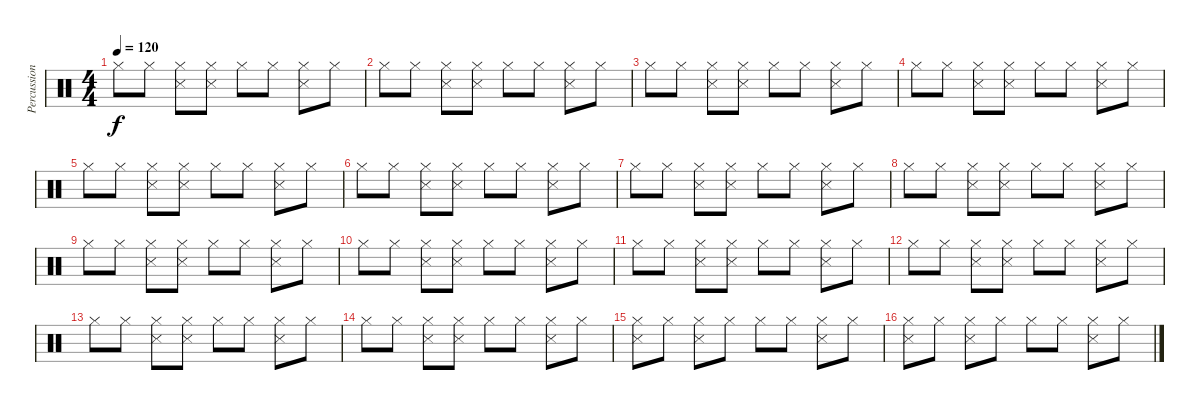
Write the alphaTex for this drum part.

\track ("Percussion" "Percussion") {instrument percussion}
\staff {score}
\articulation defaults
\ts (4 4)
\tempo 120
\clef neutral
\ks c "Hi-Hat (closed)".8{dy f} "Hi-Hat (closed)".8
("Hi-Hat (closed)" "Snare (side stick) 3").8 ("Hi-Hat (closed)" "Snare (side stick) 3").8 "Hi-Hat (closed)".8 "Hi-Hat (closed)".8 ("Hi-Hat (closed)" "Snare (side stick) 3").8 "Hi-Hat (closed)".8 |
"Hi-Hat (closed)".8 "Hi-Hat (closed)".8 ("Hi-Hat (closed)" "Snare (side stick) 3").8 ("Hi-Hat (closed)" "Snare (side stick) 3").8 "Hi-Hat (closed)".8 "Hi-Hat (closed)".8 ("Hi-Hat (closed)" "Snare (side stick) 3").8 "Hi-Hat (closed)".8 |
"Hi-Hat (closed)".8 "Hi-Hat (closed)".8 ("Hi-Hat (closed)" "Snare (side stick) 3").8 ("Hi-Hat (closed)" "Snare (side stick) 3").8 "Hi-Hat (closed)".8 "Hi-Hat (closed)".8 ("Hi-Hat (closed)" "Snare (side stick) 3").8 "Hi-Hat (closed)".8 |
"Hi-Hat (closed)".8 "Hi-Hat (closed)".8 ("Hi-Hat (closed)" "Snare (side stick) 3").8 ("Hi-Hat (closed)" "Snare (side stick) 3").8 "Hi-Hat (closed)".8 "Hi-Hat (closed)".8 ("Hi-Hat (closed)" "Snare (side stick) 3").8 "Hi-Hat (closed)".8 |
"Hi-Hat (closed)".8 "Hi-Hat (closed)".8 ("Hi-Hat (closed)" "Snare (side stick) 3").8 ("Hi-Hat (closed)" "Snare (side stick) 3").8 "Hi-Hat (closed)".8 "Hi-Hat (closed)".8 ("Hi-Hat (closed)" "Snare (side stick) 3").8 "Hi-Hat (closed)".8 |
"Hi-Hat (closed)".8 "Hi-Hat (closed)".8 ("Hi-Hat (closed)" "Snare (side stick) 3").8 ("Hi-Hat (closed)" "Snare (side stick) 3").8 "Hi-Hat (closed)".8 "Hi-Hat (closed)".8 ("Hi-Hat (closed)" "Snare (side stick) 3").8 "Hi-Hat (closed)".8 |
"Hi-Hat (closed)".8 "Hi-Hat (closed)".8 ("Hi-Hat (closed)" "Snare (side stick) 3").8 ("Hi-Hat (closed)" "Snare (side stick) 3").8 "Hi-Hat (closed)".8 "Hi-Hat (closed)".8 ("Hi-Hat (closed)" "Snare (side stick) 3").8 "Hi-Hat (closed)".8 |
"Hi-Hat (closed)".8 "Hi-Hat (closed)".8 ("Hi-Hat (closed)" "Snare (side stick) 3").8 ("Hi-Hat (closed)" "Snare (side stick) 3").8 "Hi-Hat (closed)".8 "Hi-Hat (closed)".8 ("Hi-Hat (closed)" "Snare (side stick) 3").8 "Hi-Hat (closed)".8 |
"Hi-Hat (closed)".8 "Hi-Hat (closed)".8 ("Hi-Hat (closed)" "Snare (side stick) 3").8 ("Hi-Hat (closed)" "Snare (side stick) 3").8 "Hi-Hat (closed)".8 "Hi-Hat (closed)".8 ("Hi-Hat (closed)" "Snare (side stick) 3").8 "Hi-Hat (closed)".8 |
"Hi-Hat (closed)".8 "Hi-Hat (closed)".8 ("Hi-Hat (closed)" "Snare (side stick) 3").8 ("Hi-Hat (closed)" "Snare (side stick) 3").8 "Hi-Hat (closed)".8 "Hi-Hat (closed)".8 ("Hi-Hat (closed)" "Snare (side stick) 3").8 "Hi-Hat (closed)".8 |
"Hi-Hat (closed)".8 "Hi-Hat (closed)".8 ("Hi-Hat (closed)" "Snare (side stick) 3").8 ("Hi-Hat (closed)" "Snare (side stick) 3").8 "Hi-Hat (closed)".8 "Hi-Hat (closed)".8 ("Hi-Hat (closed)" "Snare (side stick) 3").8 "Hi-Hat (closed)".8 |
"Hi-Hat (closed)".8 "Hi-Hat (closed)".8 ("Hi-Hat (closed)" "Snare (side stick) 3").8 ("Hi-Hat (closed)" "Snare (side stick) 3").8 "Hi-Hat (closed)".8 "Hi-Hat (closed)".8 ("Hi-Hat (closed)" "Snare (side stick) 3").8 "Hi-Hat (closed)".8 |
"Hi-Hat (closed)".8 "Hi-Hat (closed)".8 ("Hi-Hat (closed)" "Snare (side stick) 3").8 ("Hi-Hat (closed)" "Snare (side stick) 3").8 "Hi-Hat (closed)".8 "Hi-Hat (closed)".8 ("Hi-Hat (closed)" "Snare (side stick) 3").8 "Hi-Hat (closed)".8 |
"Hi-Hat (closed)".8 "Hi-Hat (closed)".8 ("Hi-Hat (closed)" "Snare (side stick) 3").8 ("Hi-Hat (closed)" "Snare (side stick) 3").8 "Hi-Hat (closed)".8 "Hi-Hat (closed)".8 ("Hi-Hat (closed)" "Snare (side stick) 3").8 "Hi-Hat (closed)".8 |
("Hi-Hat (closed)" "Snare (side stick) 3").8 "Hi-Hat (closed)".8 ("Hi-Hat (closed)" "Snare (side stick) 3").8 "Hi-Hat (closed)".8 "Hi-Hat (closed)".8 "Hi-Hat (closed)".8 ("Hi-Hat (closed)" "Snare (side stick) 3").8 "Hi-Hat (closed)".8 |
("Hi-Hat (closed)" "Snare (side stick) 3").8 "Hi-Hat (closed)".8 ("Hi-Hat (closed)" "Snare (side stick) 3").8 "Hi-Hat (closed)".8 "Hi-Hat (closed)".8 "Hi-Hat (closed)".8 ("Hi-Hat (closed)" "Snare (side stick) 3").8 "Hi-Hat (closed)".8
